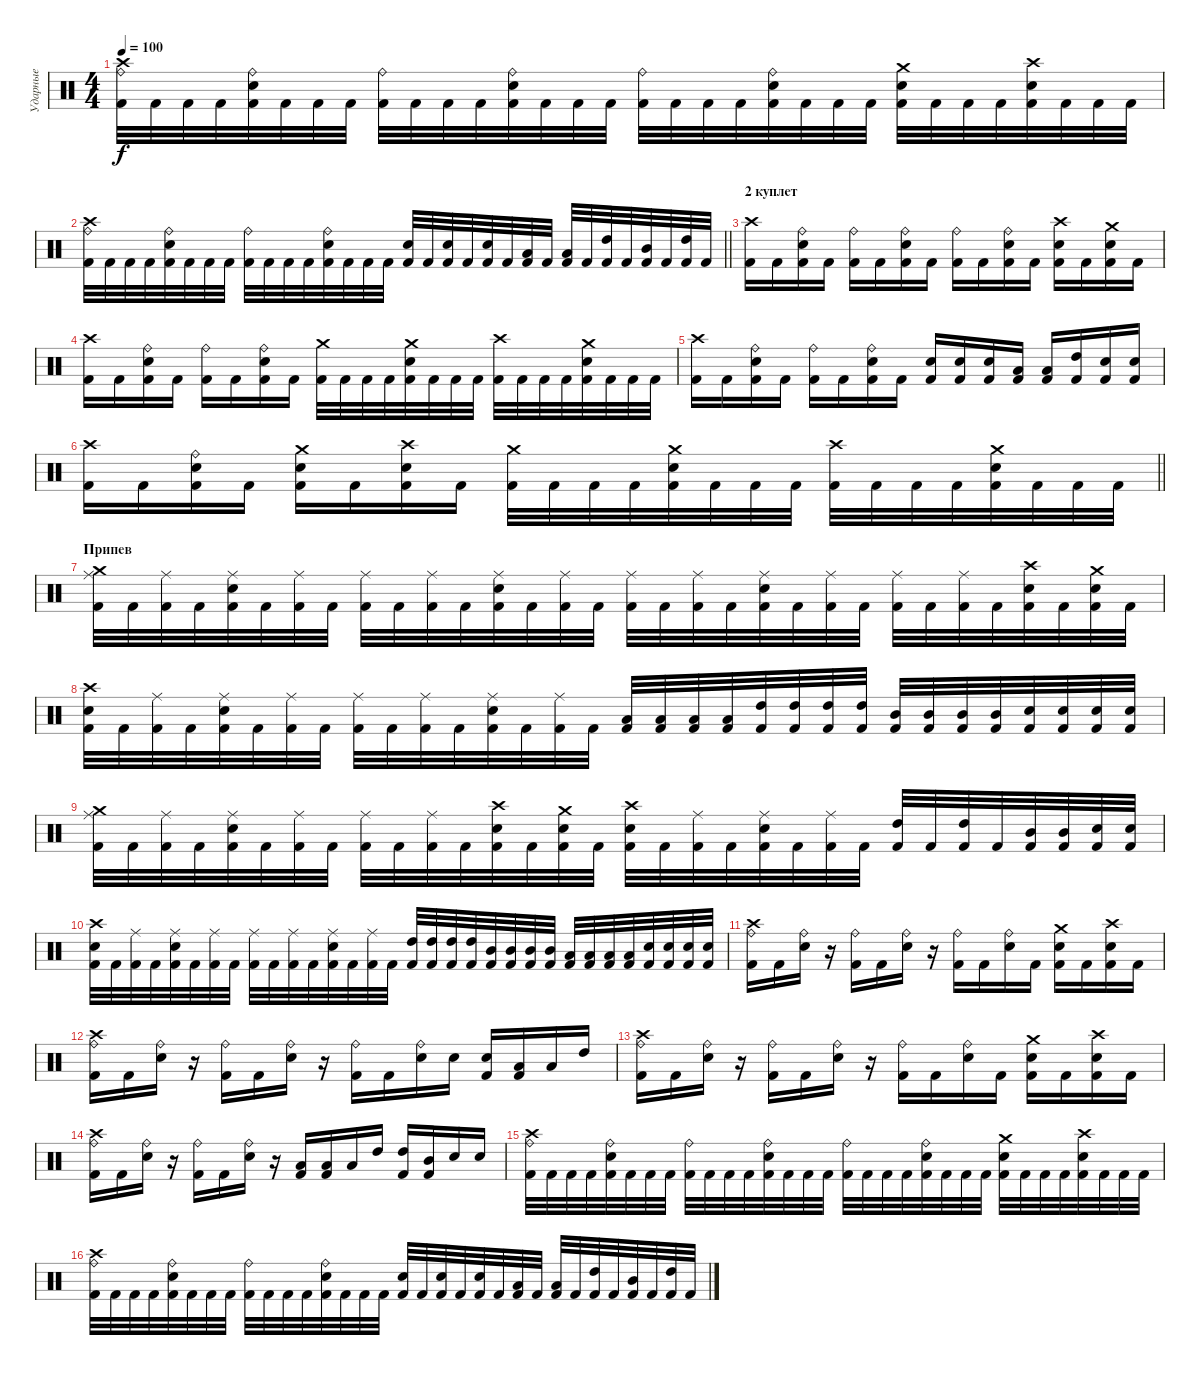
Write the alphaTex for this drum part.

\track ("Ударные" "Ударные") {instrument percussion}
\staff {score}
\articulation defaults
\ts (4 4)
\tempo 100
\clef neutral
\ks c
("Ride (bell)" "Crash high (hit)" "Kick (hit) 2").32{dy f} "Kick (hit) 2".32 "Kick (hit) 2".32 "Kick (hit) 2".32 ("Ride (bell)" "Snare (hit) 2" "Kick (hit) 2").32 "Kick (hit) 2".32 "Kick (hit) 2".32 "Kick (hit) 2".32 ("Ride (bell)" "Kick (hit) 2").32 "Kick (hit) 2".32 "Kick (hit) 2".32 "Kick (hit) 2".32 ("Ride (bell)" "Snare (hit) 2" "Kick (hit) 2").32 "Kick (hit) 2".32 "Kick (hit) 2".32 "Kick (hit) 2".32 ("Ride (bell)" "Kick (hit) 2").32 "Kick (hit) 2".32 "Kick (hit) 2".32 "Kick (hit) 2".32 ("Ride (bell)" "Snare (hit) 2" "Kick (hit) 2").32 "Kick (hit) 2".32 "Kick (hit) 2".32 "Kick (hit) 2".32 ("Crash medium (hit)" "Snare (hit) 2" "Kick (hit) 2").32 "Kick (hit) 2".32 "Kick (hit) 2".32 "Kick (hit) 2".32 ("Crash high (hit)" "Snare (hit) 2" "Kick (hit) 2").32 "Kick (hit) 2".32 "Kick (hit) 2".32 "Kick (hit) 2".32 |
\barLineRight lightlight
("Ride (bell)" "Crash high (hit)" "Kick (hit) 2").32 "Kick (hit) 2".32 "Kick (hit) 2".32 "Kick (hit) 2".32 ("Ride (bell)" "Snare (hit) 2" "Kick (hit) 2").32 "Kick (hit) 2".32 "Kick (hit) 2".32 "Kick (hit) 2".32 ("Ride (bell)" "Kick (hit) 2").32 "Kick (hit) 2".32 "Kick (hit) 2".32 "Kick (hit) 2".32 ("Ride (bell)" "Snare (hit) 2" "Kick (hit) 2").32 "Kick (hit) 2".32 "Kick (hit) 2".32 "Kick (hit) 2".32 ("Snare (hit) 2" "Kick (hit) 2").32 "Kick (hit) 2".32 ("Snare (hit) 2" "Kick (hit) 2").32 "Kick (hit) 2".32 ("Snare (hit) 2" "Kick (hit) 2").32 "Kick (hit) 2".32 ("Low Tom (hit)" "Kick (hit) 2").32 "Kick (hit) 2".32 ("Low Tom (hit)" "Kick (hit) 2").32 "Kick (hit) 2".32 ("High Tom (hit)" "Kick (hit) 2").32 "Kick (hit) 2".32 ("Mid Tom (hit)" "Kick (hit) 2").32 "Kick (hit) 2".32 ("High Tom (hit)" "Kick (hit) 2").32 "Kick (hit) 2".32 |
\section ("" "2 куплет")
("Crash high (hit)" "Kick (hit) 2").16 "Kick (hit) 2".16 ("Ride (bell)" "Snare (hit) 2" "Kick (hit) 2").16 "Kick (hit) 2".16 ("Ride (bell)" "Kick (hit) 2").16 "Kick (hit) 2".16 ("Ride (bell)" "Snare (hit) 2" "Kick (hit) 2").16 "Kick (hit) 2".16 ("Ride (bell)" "Kick (hit) 2").16 "Kick (hit) 2".16 ("Ride (bell)" "Snare (hit) 2" "Kick (hit) 2").16 "Kick (hit) 2".16 ("Crash high (hit)" "Snare (hit) 2" "Kick (hit) 2").16 "Kick (hit) 2".16 ("Crash medium (hit)" "Snare (hit) 2" "Kick (hit) 2").16 "Kick (hit) 2".16 |
("Crash high (hit)" "Kick (hit) 2").16 "Kick (hit) 2".16 ("Ride (bell)" "Snare (hit) 2" "Kick (hit) 2").16 "Kick (hit) 2".16 ("Ride (bell)" "Kick (hit) 2").16 "Kick (hit) 2".16 ("Ride (bell)" "Snare (hit) 2" "Kick (hit) 2").16 "Kick (hit) 2".16 ("Crash medium (hit)" "Kick (hit) 2").32 "Kick (hit) 2".32 "Kick (hit) 2".32 "Kick (hit) 2".32 ("Snare (hit) 2" "Crash medium (hit)" "Kick (hit) 2").32 "Kick (hit) 2".32 "Kick (hit) 2".32 "Kick (hit) 2".32 ("Crash high (hit)" "Kick (hit) 2").32 "Kick (hit) 2".32 "Kick (hit) 2".32 "Kick (hit) 2".32 ("Snare (hit) 2" "Crash medium (hit)" "Kick (hit) 2").32 "Kick (hit) 2".32 "Kick (hit) 2".32 "Kick (hit) 2".32 |
("Crash high (hit)" "Kick (hit) 2").16 "Kick (hit) 2".16 ("Ride (bell)" "Snare (hit) 2" "Kick (hit) 2").16 "Kick (hit) 2".16 ("Ride (bell)" "Kick (hit) 2").16 "Kick (hit) 2".16 ("Ride (bell)" "Snare (hit) 2" "Kick (hit) 2").16 "Kick (hit) 2".16 ("Snare (hit) 2" "Kick (hit) 2").16 ("Snare (hit) 2" "Kick (hit) 2").16 ("Snare (hit) 2" "Kick (hit) 2").16 ("Low Tom (hit)" "Kick (hit) 2").16 ("Low Tom (hit)" "Kick (hit) 2").16 ("High Tom (hit)" "Kick (hit) 2").16 ("Snare (hit) 2" "Kick (hit) 2").16 ("Snare (hit) 2" "Kick (hit) 2").16 |
\barLineRight lightlight
("Crash high (hit)" "Kick (hit) 2").16 "Kick (hit) 2".16 ("Ride (bell)" "Snare (hit) 2" "Kick (hit) 2").16 "Kick (hit) 2".16 ("Crash medium (hit)" "Snare (hit) 2" "Kick (hit) 2").16 "Kick (hit) 2".16 ("Crash high (hit)" "Snare (hit) 2" "Kick (hit) 2").16 "Kick (hit) 2".16 ("Crash medium (hit)" "Kick (hit) 2").32 "Kick (hit) 2".32 "Kick (hit) 2".32 "Kick (hit) 2".32 ("Snare (hit) 2" "Crash medium (hit)" "Kick (hit) 2").32 "Kick (hit) 2".32 "Kick (hit) 2".32 "Kick (hit) 2".32 ("Crash high (hit)" "Kick (hit) 2").32 "Kick (hit) 2".32 "Kick (hit) 2".32 "Kick (hit) 2".32 ("Snare (hit) 2" "Crash medium (hit)" "Kick (hit) 2").32 "Kick (hit) 2".32 "Kick (hit) 2".32 "Kick (hit) 2".32 |
\section ("" "Припев")
("Ride (middle)" "Crash medium (hit)" "Kick (hit) 2").32 "Kick (hit) 2".32 ("Ride (middle)" "Kick (hit) 2").32 "Kick (hit) 2".32 ("Ride (middle)" "Snare (hit) 2" "Kick (hit) 2").32 "Kick (hit) 2".32 ("Ride (middle)" "Kick (hit) 2").32 "Kick (hit) 2".32 ("Ride (middle)" "Kick (hit) 2").32 "Kick (hit) 2".32 ("Ride (middle)" "Kick (hit) 2").32 "Kick (hit) 2".32 ("Ride (middle)" "Snare (hit) 2" "Kick (hit) 2").32 "Kick (hit) 2".32 ("Ride (middle)" "Kick (hit) 2").32 "Kick (hit) 2".32 ("Ride (middle)" "Kick (hit) 2").32 "Kick (hit) 2".32 ("Ride (middle)" "Kick (hit) 2").32 "Kick (hit) 2".32 ("Ride (middle)" "Snare (hit) 2" "Kick (hit) 2").32 "Kick (hit) 2".32 ("Ride (middle)" "Kick (hit) 2").32 "Kick (hit) 2".32 ("Ride (middle)" "Kick (hit) 2").32 "Kick (hit) 2".32 ("Ride (middle)" "Kick (hit) 2").32 "Kick (hit) 2".32 ("Crash high (hit)" "Snare (hit) 2" "Kick (hit) 2").32 "Kick (hit) 2".32 ("Crash medium (hit)" "Snare (hit) 2" "Kick (hit) 2").32 "Kick (hit) 2".32 |
("Snare (hit) 2" "Crash high (hit)" "Kick (hit) 2").32 "Kick (hit) 2".32 ("Ride (middle)" "Kick (hit) 2").32 "Kick (hit) 2".32 ("Ride (middle)" "Snare (hit) 2" "Kick (hit) 2").32 "Kick (hit) 2".32 ("Ride (middle)" "Kick (hit) 2").32 "Kick (hit) 2".32 ("Ride (middle)" "Kick (hit) 2").32 "Kick (hit) 2".32 ("Ride (middle)" "Kick (hit) 2").32 "Kick (hit) 2".32 ("Ride (middle)" "Snare (hit) 2" "Kick (hit) 2").32 "Kick (hit) 2".32 ("Ride (middle)" "Kick (hit) 2").32 "Kick (hit) 2".32 ("Low Tom (hit)" "Kick (hit) 2").32 ("Low Tom (hit)" "Kick (hit) 2").32 ("Low Tom (hit)" "Kick (hit) 2").32 ("Low Tom (hit)" "Kick (hit) 2").32 ("High Tom (hit)" "Kick (hit) 2").32 ("High Tom (hit)" "Kick (hit) 2").32 ("High Tom (hit)" "Kick (hit) 2").32 ("High Tom (hit)" "Kick (hit) 2").32 ("Mid Tom (hit)" "Kick (hit) 2").32 ("Mid Tom (hit)" "Kick (hit) 2").32 ("Mid Tom (hit)" "Kick (hit) 2").32 ("Mid Tom (hit)" "Kick (hit) 2").32 ("Snare (hit) 2" "Kick (hit) 2").32 ("Snare (hit) 2" "Kick (hit) 2").32 ("Snare (hit) 2" "Kick (hit) 2").32 ("Snare (hit) 2" "Kick (hit) 2").32 |
("Ride (middle)" "Crash medium (hit)" "Kick (hit) 2").32 "Kick (hit) 2".32 ("Ride (middle)" "Kick (hit) 2").32 "Kick (hit) 2".32 ("Ride (middle)" "Snare (hit) 2" "Kick (hit) 2").32 "Kick (hit) 2".32 ("Ride (middle)" "Kick (hit) 2").32 "Kick (hit) 2".32 ("Ride (middle)" "Kick (hit) 2").32 "Kick (hit) 2".32 ("Ride (middle)" "Kick (hit) 2").32 "Kick (hit) 2".32 ("Crash high (hit)" "Snare (hit) 2" "Kick (hit) 2").32 "Kick (hit) 2".32 ("Crash medium (hit)" "Snare (hit) 2" "Kick (hit) 2").32 "Kick (hit) 2".32 ("Crash high (hit)" "Snare (hit) 2" "Kick (hit) 2").32 "Kick (hit) 2".32 ("Ride (middle)" "Kick (hit) 2").32 "Kick (hit) 2".32 ("Ride (middle)" "Snare (hit) 2" "Kick (hit) 2").32 "Kick (hit) 2".32 ("Ride (middle)" "Kick (hit) 2").32 "Kick (hit) 2".32 ("High Tom (hit)" "Kick (hit) 2").32 "Kick (hit) 2".32 ("High Tom (hit)" "Kick (hit) 2").32 "Kick (hit) 2".32 ("Mid Tom (hit)" "Kick (hit) 2").32 ("Mid Tom (hit)" "Kick (hit) 2").32 ("Snare (hit) 2" "Kick (hit) 2").32 ("Snare (hit) 2" "Kick (hit) 2").32 |
("Snare (hit) 2" "Crash high (hit)" "Kick (hit) 2").32 "Kick (hit) 2".32 ("Ride (middle)" "Kick (hit) 2").32 "Kick (hit) 2".32 ("Ride (middle)" "Snare (hit) 2" "Kick (hit) 2").32 "Kick (hit) 2".32 ("Ride (middle)" "Kick (hit) 2").32 "Kick (hit) 2".32 ("Ride (middle)" "Kick (hit) 2").32 "Kick (hit) 2".32 ("Ride (middle)" "Kick (hit) 2").32 "Kick (hit) 2".32 ("Ride (middle)" "Snare (hit) 2" "Kick (hit) 2").32 "Kick (hit) 2".32 ("Ride (middle)" "Kick (hit) 2").32 "Kick (hit) 2".32 ("High Tom (hit)" "Kick (hit) 2").32 ("High Tom (hit)" "Kick (hit) 2").32 ("High Tom (hit)" "Kick (hit) 2").32 ("High Tom (hit)" "Kick (hit) 2").32 ("Mid Tom (hit)" "Kick (hit) 2").32 ("Mid Tom (hit)" "Kick (hit) 2").32 ("Mid Tom (hit)" "Kick (hit) 2").32 ("Mid Tom (hit)" "Kick (hit) 2").32 ("Low Tom (hit)" "Kick (hit) 2").32 ("Low Tom (hit)" "Kick (hit) 2").32 ("Low Tom (hit)" "Kick (hit) 2").32 ("Low Tom (hit)" "Kick (hit) 2").32 ("Snare (hit) 2" "Kick (hit) 2").32 ("Snare (hit) 2" "Kick (hit) 2").32 ("Snare (hit) 2" "Kick (hit) 2").32 ("Snare (hit) 2" "Kick (hit) 2").32 |
("Ride (bell)" "Crash high (hit)" "Kick (hit) 2").16 "Kick (hit) 2".16 ("Ride (bell)" "Snare (hit) 2").16 r.16 ("Ride (bell)" "Kick (hit) 2").16 "Kick (hit) 2".16 ("Ride (bell)" "Snare (hit) 2").16 r.16 ("Ride (bell)" "Kick (hit) 2").16 "Kick (hit) 2".16 ("Ride (bell)" "Snare (hit) 2").16 "Kick (hit) 2".16 ("Crash medium (hit)" "Snare (hit) 2" "Kick (hit) 2").16 "Kick (hit) 2".16 ("Crash high (hit)" "Snare (hit) 2" "Kick (hit) 2").16 "Kick (hit) 2".16 |
("Ride (bell)" "Crash high (hit)" "Kick (hit) 2").16 "Kick (hit) 2".16 ("Ride (bell)" "Snare (hit) 2").16 r.16 ("Ride (bell)" "Kick (hit) 2").16 "Kick (hit) 2".16 ("Ride (bell)" "Snare (hit) 2").16 r.16 ("Ride (bell)" "Kick (hit) 2").16 "Kick (hit) 2".16 ("Ride (bell)" "Snare (hit) 2").16 "Snare (hit) 2".16 ("Snare (hit) 2" "Kick (hit) 2").16 ("Low Tom (hit)" "Kick (hit) 2").16 "Low Tom (hit)".16 "High Tom (hit)".16 |
("Ride (bell)" "Crash high (hit)" "Kick (hit) 2").16 "Kick (hit) 2".16 ("Ride (bell)" "Snare (hit) 2").16 r.16 ("Ride (bell)" "Kick (hit) 2").16 "Kick (hit) 2".16 ("Ride (bell)" "Snare (hit) 2").16 r.16 ("Ride (bell)" "Kick (hit) 2").16 "Kick (hit) 2".16 ("Ride (bell)" "Snare (hit) 2").16 "Kick (hit) 2".16 ("Crash medium (hit)" "Snare (hit) 2" "Kick (hit) 2").16 "Kick (hit) 2".16 ("Crash high (hit)" "Snare (hit) 2" "Kick (hit) 2").16 "Kick (hit) 2".16 |
("Ride (bell)" "Crash high (hit)" "Kick (hit) 2").16 "Kick (hit) 2".16 ("Ride (bell)" "Snare (hit) 2").16 r.16 ("Ride (bell)" "Kick (hit) 2").16 "Kick (hit) 2".16 ("Ride (bell)" "Snare (hit) 2").16 r.16 ("Low Tom (hit)" "Kick (hit) 2").16 ("Low Tom (hit)" "Kick (hit) 2").16 "Low Tom (hit)".16 "High Tom (hit)".16 ("High Tom (hit)" "Kick (hit) 2").16 ("Mid Tom (hit)" "Kick (hit) 2").16 "Snare (hit) 2".16 "Snare (hit) 2".16 |
("Ride (bell)" "Crash high (hit)" "Kick (hit) 2").32 "Kick (hit) 2".32 "Kick (hit) 2".32 "Kick (hit) 2".32 ("Ride (bell)" "Snare (hit) 2" "Kick (hit) 2").32 "Kick (hit) 2".32 "Kick (hit) 2".32 "Kick (hit) 2".32 ("Ride (bell)" "Kick (hit) 2").32 "Kick (hit) 2".32 "Kick (hit) 2".32 "Kick (hit) 2".32 ("Ride (bell)" "Snare (hit) 2" "Kick (hit) 2").32 "Kick (hit) 2".32 "Kick (hit) 2".32 "Kick (hit) 2".32 ("Ride (bell)" "Kick (hit) 2").32 "Kick (hit) 2".32 "Kick (hit) 2".32 "Kick (hit) 2".32 ("Ride (bell)" "Snare (hit) 2" "Kick (hit) 2").32 "Kick (hit) 2".32 "Kick (hit) 2".32 "Kick (hit) 2".32 ("Crash medium (hit)" "Snare (hit) 2" "Kick (hit) 2").32 "Kick (hit) 2".32 "Kick (hit) 2".32 "Kick (hit) 2".32 ("Crash high (hit)" "Snare (hit) 2" "Kick (hit) 2").32 "Kick (hit) 2".32 "Kick (hit) 2".32 "Kick (hit) 2".32 |
("Ride (bell)" "Crash high (hit)" "Kick (hit) 2").32 "Kick (hit) 2".32 "Kick (hit) 2".32 "Kick (hit) 2".32 ("Ride (bell)" "Snare (hit) 2" "Kick (hit) 2").32 "Kick (hit) 2".32 "Kick (hit) 2".32 "Kick (hit) 2".32 ("Ride (bell)" "Kick (hit) 2").32 "Kick (hit) 2".32 "Kick (hit) 2".32 "Kick (hit) 2".32 ("Ride (bell)" "Snare (hit) 2" "Kick (hit) 2").32 "Kick (hit) 2".32 "Kick (hit) 2".32 "Kick (hit) 2".32 ("Snare (hit) 2" "Kick (hit) 2").32 "Kick (hit) 2".32 ("Snare (hit) 2" "Kick (hit) 2").32 "Kick (hit) 2".32 ("Snare (hit) 2" "Kick (hit) 2").32 "Kick (hit) 2".32 ("Low Tom (hit)" "Kick (hit) 2").32 "Kick (hit) 2".32 ("Low Tom (hit)" "Kick (hit) 2").32 "Kick (hit) 2".32 ("High Tom (hit)" "Kick (hit) 2").32 "Kick (hit) 2".32 ("Mid Tom (hit)" "Kick (hit) 2").32 "Kick (hit) 2".32 ("High Tom (hit)" "Kick (hit) 2").32 "Kick (hit) 2".32
